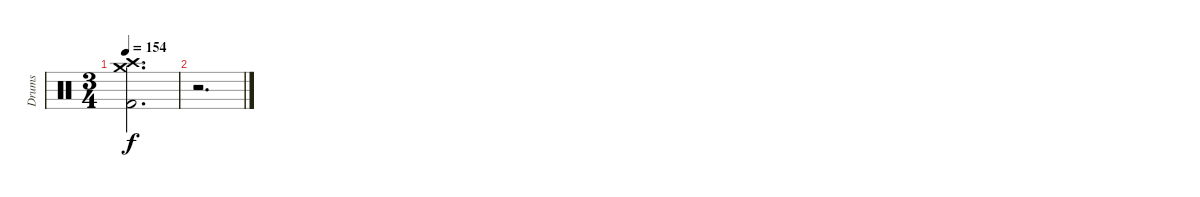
\track ("Drums" "Drums") {instrument percussion}
\staff {score}
\articulation defaults
\ts (3 4)
\tempo 154
\clef neutral
\ks c
("Crash medium (hit)" "Crash high (hit)" "Kick (hit) 2").2{d dy f} |
r.2{d}
